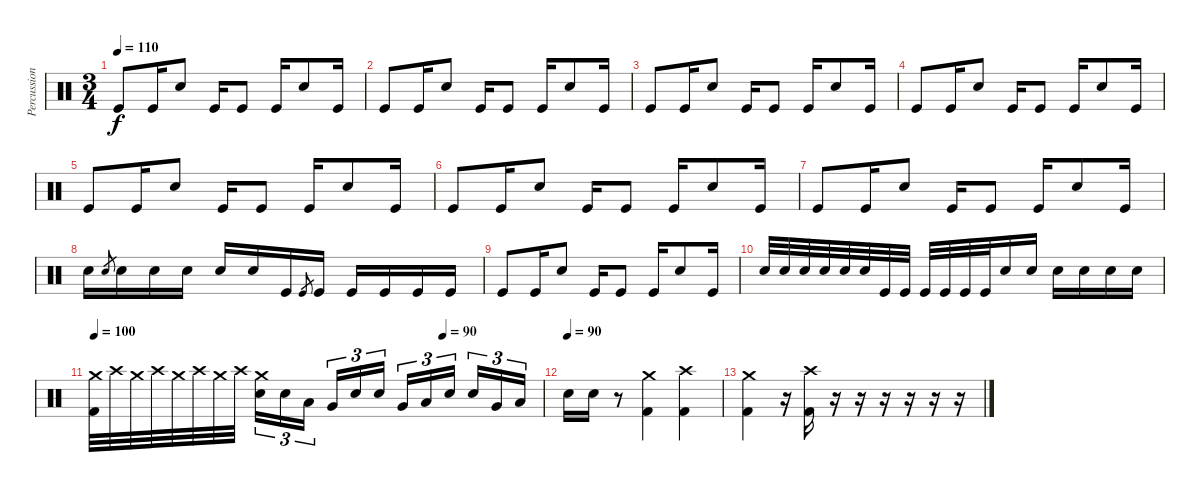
\track ("Percussion" "Percussion") {instrument percussion}
\staff {score}
\articulation defaults
\ts (3 4)
\tempo 110
\clef neutral
\ks c "Kick (hit)".8{dy f} "Kick (hit)".16 "Snare (hit) 2".8 "Kick (hit)".16 "Kick (hit)".8 "Kick (hit)".16 "Snare (hit) 2".8 "Kick (hit)".16
|
"Kick (hit)".8 "Kick (hit)".16 "Snare (hit) 2".8 "Kick (hit)".16 "Kick (hit)".8 "Kick (hit)".16 "Snare (hit) 2".8 "Kick (hit)".16 |
"Kick (hit)".8 "Kick (hit)".16 "Snare (hit) 2".8 "Kick (hit)".16 "Kick (hit)".8 "Kick (hit)".16 "Snare (hit) 2".8 "Kick (hit)".16 |
"Kick (hit)".8 "Kick (hit)".16 "Snare (hit) 2".8 "Kick (hit)".16 "Kick (hit)".8 "Kick (hit)".16 "Snare (hit) 2".8 "Kick (hit)".16 |
"Kick (hit)".8 "Kick (hit)".16 "Snare (hit) 2".8 "Kick (hit)".16 "Kick (hit)".8 "Kick (hit)".16 "Snare (hit) 2".8 "Kick (hit)".16 |
"Kick (hit)".8 "Kick (hit)".16 "Snare (hit) 2".8 "Kick (hit)".16 "Kick (hit)".8 "Kick (hit)".16 "Snare (hit) 2".8 "Kick (hit)".16 |
"Kick (hit)".8 "Kick (hit)".16 "Snare (hit) 2".8 "Kick (hit)".16 "Kick (hit)".8 "Kick (hit)".16 "Snare (hit) 2".8 "Kick (hit)".16 |
"Snare (hit) 2".16 "Snare (hit) 2".8{gr} "Snare (hit) 2".16 "Snare (hit) 2".16 "Snare (hit) 2".16 "Snare (hit) 2".16 "Snare (hit) 2".16 "Kick (hit)".16 "Kick (hit)".8{gr} "Kick (hit)".16 "Kick (hit)".16 "Kick (hit)".16 "Kick (hit)".16 "Kick (hit)".16 |
"Kick (hit)".8 "Kick (hit)".16 "Snare (hit) 2".8 "Kick (hit)".16 "Kick (hit)".8 "Kick (hit)".16 "Snare (hit) 2".8 "Kick (hit)".16 |
"Snare (hit) 2".32 "Snare (hit) 2".32 "Snare (hit) 2".32 "Snare (hit) 2".32 "Snare (hit) 2".32 "Snare (hit) 2".32 "Kick (hit)".32 "Kick (hit)".32 "Kick (hit)".32 "Kick (hit)".32 "Kick (hit)".32 "Kick (hit)".32 "Snare (hit) 2".16 "Snare (hit) 2".16 "Snare (hit) 2".16 "Snare (hit) 2".16 "Snare (hit) 2".16 "Snare (hit) 2".16 |
\tempo 100
\tempo (90 0.7777777777777778)
("Crash medium (hit)" "Kick (hit) 2").32 "Crash high (hit)".32 "Crash medium (hit)".32 "Crash high (hit)".32 "Crash medium (hit)".32 "Crash high (hit)".32 "Crash medium (hit)".32 "Crash high (hit)".32 ("Crash medium (hit)" "Electric Snare (hit)").16{tu (3 2)} "Electric Snare (hit)".16{tu (3 2)} "Low Tom (hit)".16{tu (3 2)} "Very Low Tom (hit)".16{tu (3 2)} "Electric Snare (hit)".16{tu (3 2)} "Electric Snare (hit)".16{tu (3 2)} "Very Low Tom (hit)".16{tu (3 2)} "Low Floor Tom (hit)".16{tu (3 2)} "Electric Snare (hit)".16{tu (3 2)} "Electric Snare (hit)".16{tu (3 2)} "Very Low Tom (hit)".16{tu (3 2)} "Low Floor Tom (hit)".16{tu (3 2)} |
\tempo (90)
"Electric Snare (hit)".16 "Electric Snare (hit)".16 r.8 ("Crash medium (hit)" "Kick (hit) 2").4 ("Crash high (hit)" "Kick (hit) 2").4 |
("Crash medium (hit)" "Kick (hit) 2").4 r.16 ("Crash high (hit)" "Kick (hit) 2").16 r.16 r.16 r.16 r.16 r.16 r.16
